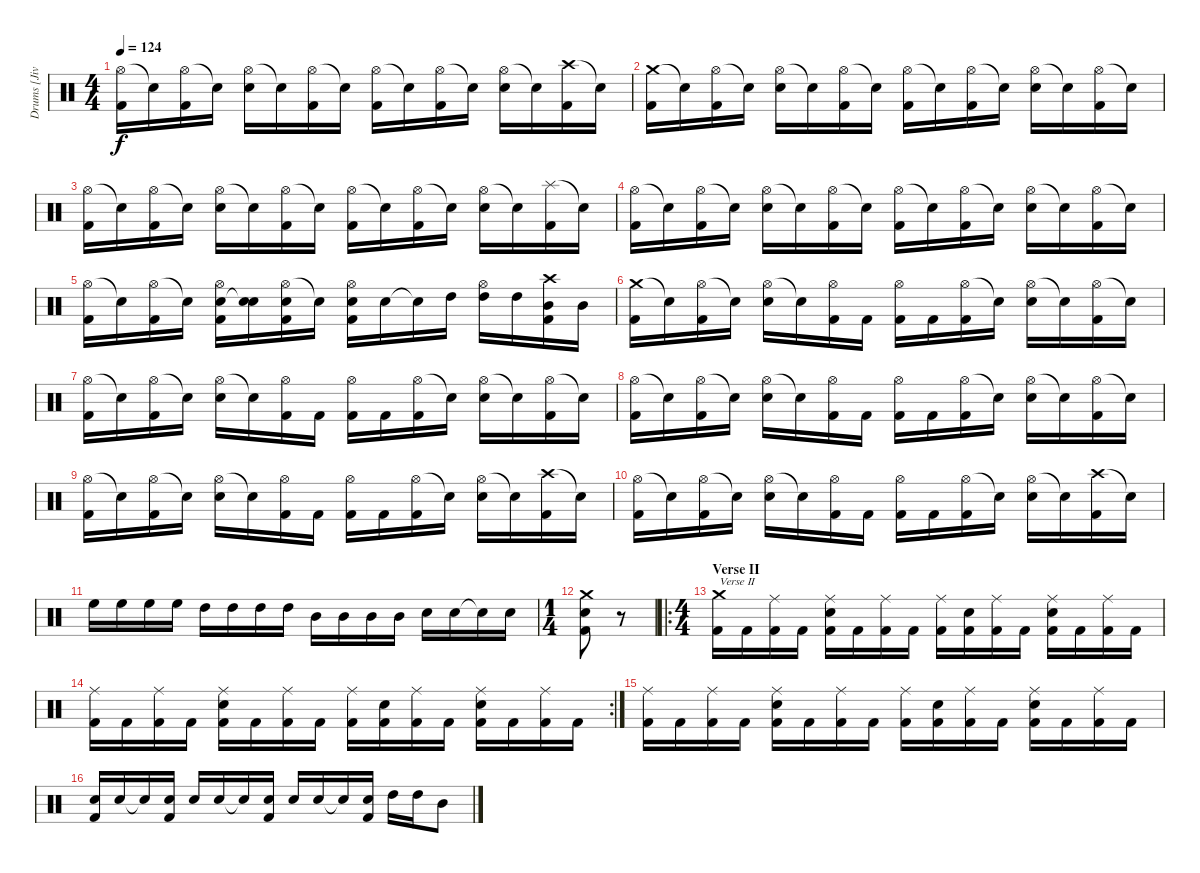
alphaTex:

\track ("Drums [Jivarp]" "Drums [Jiv") {instrument percussion}
\staff {score}
\articulation defaults
\ts (4 4)
\tempo 124
\clef neutral
\ks c
("Hi-Hat (open)" "Kick (hit) 2").16{dy f} "Snare (hit)"{t}.16 ("Hi-Hat (open)" "Kick (hit) 2").16 "Snare (hit)"{t}.16 ("Hi-Hat (open)" "Electric Snare (hit)").16 "Snare (hit)"{t}.16 ("Hi-Hat (open)" "Kick (hit) 2").16 "Snare (hit)"{t}.16 ("Hi-Hat (open)" "Kick (hit) 2").16 "Snare (hit)"{t}.16 ("Hi-Hat (open)" "Kick (hit) 2").16 "Snare (hit)"{t}.16 ("Hi-Hat (open)" "Electric Snare (hit)").16 "Snare (hit)"{t}.16 ("Crash high (hit)" "Kick (hit) 2").16 "Snare (hit)"{t}.16 |
("Crash medium (hit)" "Kick (hit) 2").16 "Snare (hit)"{t}.16 ("Hi-Hat (open)" "Kick (hit) 2").16 "Snare (hit)"{t}.16 ("Hi-Hat (open)" "Electric Snare (hit)").16 "Snare (hit)"{t}.16 ("Hi-Hat (open)" "Kick (hit) 2").16 "Snare (hit)"{t}.16 ("Hi-Hat (open)" "Kick (hit) 2").16 "Snare (hit)"{t}.16 ("Hi-Hat (open)" "Kick (hit) 2").16 "Snare (hit)"{t}.16 ("Hi-Hat (open)" "Electric Snare (hit)").16 "Snare (hit)"{t}.16 ("Hi-Hat (open)" "Kick (hit) 2").16 "Snare (hit)"{t}.16 |
("Hi-Hat (open)" "Kick (hit) 2").16 "Snare (hit)"{t}.16 ("Hi-Hat (open)" "Kick (hit) 2").16 "Snare (hit)"{t}.16 ("Hi-Hat (open)" "Electric Snare (hit)").16 "Snare (hit)"{t}.16 ("Hi-Hat (open)" "Kick (hit) 2").16 "Snare (hit)"{t}.16 ("Hi-Hat (open)" "Kick (hit) 2").16 "Snare (hit)"{t}.16 ("Hi-Hat (open)" "Kick (hit) 2").16 "Snare (hit)"{t}.16 ("Hi-Hat (open)" "Electric Snare (hit)").16 "Snare (hit)"{t}.16 ("Splash (hit)" "Kick (hit) 2").16 "Snare (hit)"{t}.16 |
("Hi-Hat (open)" "Kick (hit) 2").16 "Snare (hit)"{t}.16 ("Hi-Hat (open)" "Kick (hit) 2").16 "Snare (hit)"{t}.16 ("Hi-Hat (open)" "Electric Snare (hit)").16 "Snare (hit)"{t}.16 ("Hi-Hat (open)" "Kick (hit) 2").16 "Snare (hit)"{t}.16 ("Hi-Hat (open)" "Kick (hit) 2").16 "Snare (hit)"{t}.16 ("Hi-Hat (open)" "Kick (hit) 2").16 "Snare (hit)"{t}.16 ("Hi-Hat (open)" "Electric Snare (hit)").16 "Snare (hit)"{t}.16 ("Hi-Hat (open)" "Kick (hit) 2").16 "Snare (hit)"{t}.16 |
("Hi-Hat (open)" "Kick (hit) 2").16 "Snare (hit)"{t}.16 ("Hi-Hat (open)" "Kick (hit) 2").16 "Snare (hit)"{t}.16 ("Hi-Hat (open)" "Electric Snare (hit)" "Kick (hit) 2").16 ("Electric Snare (hit)" "Snare (hit)"{t}).16 ("Hi-Hat (open)" "Electric Snare (hit)" "Kick (hit) 2").16 "Snare (hit)"{t}.16 ("Hi-Hat (open)" "Electric Snare (hit)" "Kick (hit) 2").16 "Electric Snare (hit)".16 "Snare (hit)"{t}.16 "High Tom (hit)".16 ("Hi-Hat (open)" "High Tom (hit)").16 "High Tom (hit)".16 ("Crash high (hit)" "Mid Tom (hit)" "Kick (hit) 2").16 "Mid Tom (hit)".16 |
("Crash medium (hit)" "Kick (hit) 2").16 "Snare (hit)"{t}.16 ("Hi-Hat (open)" "Kick (hit) 2").16 "Snare (hit)"{t}.16 ("Hi-Hat (open)" "Electric Snare (hit)").16 "Snare (hit)"{t}.16 ("Hi-Hat (open)" "Kick (hit) 2").16 "Kick (hit) 2".16 ("Hi-Hat (open)" "Kick (hit) 2").16 "Kick (hit) 2".16 ("Hi-Hat (open)" "Kick (hit) 2").16 "Snare (hit)"{t}.16 ("Hi-Hat (open)" "Electric Snare (hit)").16 "Snare (hit)"{t}.16 ("Hi-Hat (open)" "Kick (hit) 2").16 "Snare (hit)"{t}.16 |
("Hi-Hat (open)" "Kick (hit) 2").16 "Snare (hit)"{t}.16 ("Hi-Hat (open)" "Kick (hit) 2").16 "Snare (hit)"{t}.16 ("Hi-Hat (open)" "Electric Snare (hit)").16 "Snare (hit)"{t}.16 ("Hi-Hat (open)" "Kick (hit) 2").16 "Kick (hit) 2".16 ("Hi-Hat (open)" "Kick (hit) 2").16 "Kick (hit) 2".16 ("Hi-Hat (open)" "Kick (hit) 2").16 "Snare (hit)"{t}.16 ("Hi-Hat (open)" "Electric Snare (hit)").16 "Snare (hit)"{t}.16 ("Hi-Hat (open)" "Kick (hit) 2").16 "Snare (hit)"{t}.16 |
("Hi-Hat (open)" "Kick (hit) 2").16 "Snare (hit)"{t}.16 ("Hi-Hat (open)" "Kick (hit) 2").16 "Snare (hit)"{t}.16 ("Hi-Hat (open)" "Electric Snare (hit)").16 "Snare (hit)"{t}.16 ("Hi-Hat (open)" "Kick (hit) 2").16 "Kick (hit) 2".16 ("Hi-Hat (open)" "Kick (hit) 2").16 "Kick (hit) 2".16 ("Hi-Hat (open)" "Kick (hit) 2").16 "Snare (hit)"{t}.16 ("Hi-Hat (open)" "Electric Snare (hit)").16 "Snare (hit)"{t}.16 ("Hi-Hat (open)" "Kick (hit) 2").16 "Snare (hit)"{t}.16 |
("Hi-Hat (open)" "Kick (hit) 2").16 "Snare (hit)"{t}.16 ("Hi-Hat (open)" "Kick (hit) 2").16 "Snare (hit)"{t}.16 ("Hi-Hat (open)" "Electric Snare (hit)").16 "Snare (hit)"{t}.16 ("Hi-Hat (open)" "Kick (hit) 2").16 "Kick (hit) 2".16 ("Hi-Hat (open)" "Kick (hit) 2").16 "Kick (hit) 2".16 ("Hi-Hat (open)" "Kick (hit) 2").16 "Snare (hit)"{t}.16 ("Hi-Hat (open)" "Electric Snare (hit)").16 "Snare (hit)"{t}.16 ("Crash high (hit)" "Kick (hit) 2").16 "Snare (hit)"{t}.16 |
("Hi-Hat (open)" "Kick (hit) 2").16 "Snare (hit)"{t}.16 ("Hi-Hat (open)" "Kick (hit) 2").16 "Snare (hit)"{t}.16 ("Hi-Hat (open)" "Electric Snare (hit)").16 "Snare (hit)"{t}.16 ("Hi-Hat (open)" "Kick (hit) 2").16 "Kick (hit) 2".16 ("Hi-Hat (open)" "Kick (hit) 2").16 "Kick (hit) 2".16 ("Hi-Hat (open)" "Kick (hit) 2").16 "Snare (hit)"{t}.16 ("Hi-Hat (open)" "Electric Snare (hit)").16 "Snare (hit)"{t}.16 ("Crash high (hit)" "Kick (hit) 2").16 "Snare (hit)"{t}.16 |
"High Floor Tom (hit)".16 "High Floor Tom (hit)".16 "High Floor Tom (hit)".16 "High Floor Tom (hit)".16 "High Tom (hit)".16 "High Tom (hit)".16 "High Tom (hit)".16 "High Tom (hit)".16 "Mid Tom (hit)".16 "Mid Tom (hit)".16 "Mid Tom (hit)".16 "Mid Tom (hit)".16 "Electric Snare (hit)".16 "Electric Snare (hit)".16 "Snare (hit)"{t}.16 "Electric Snare (hit)".16 |
\ts (1 4)
("Crash medium (hit)" "Electric Snare (hit)" "Kick (hit) 2").8 r.8 |
\ro
\ts (4 4)
\section ("" "Verse II")
("Crash medium (hit)" "Kick (hit) 2").16{txt "Verse II"} "Kick (hit) 2".16 ("Ride (middle)" "Kick (hit) 2").16 "Kick (hit) 2".16 ("Ride (middle)" "Electric Snare (hit)" "Kick (hit) 2").16 "Kick (hit) 2".16 ("Ride (middle)" "Kick (hit) 2").16 "Kick (hit) 2".16 ("Ride (middle)" "Kick (hit) 2").16 ("Electric Snare (hit)" "Kick (hit) 2").16 ("Ride (middle)" "Kick (hit) 2").16 "Kick (hit) 2".16 ("Ride (middle)" "Electric Snare (hit)" "Kick (hit) 2").16 "Kick (hit) 2".16 ("Ride (middle)" "Kick (hit) 2").16 "Kick (hit) 2".16 |
\rc 2
("Ride (middle)" "Kick (hit) 2").16 "Kick (hit) 2".16 ("Ride (middle)" "Kick (hit) 2").16 "Kick (hit) 2".16 ("Ride (middle)" "Electric Snare (hit)" "Kick (hit) 2").16 "Kick (hit) 2".16 ("Ride (middle)" "Kick (hit) 2").16 "Kick (hit) 2".16 ("Ride (middle)" "Kick (hit) 2").16 ("Electric Snare (hit)" "Kick (hit) 2").16 ("Ride (middle)" "Kick (hit) 2").16 "Kick (hit) 2".16 ("Ride (middle)" "Electric Snare (hit)" "Kick (hit) 2").16 "Kick (hit) 2".16 ("Ride (middle)" "Kick (hit) 2").16 "Kick (hit) 2".16 |
("Ride (middle)" "Kick (hit) 2").16 "Kick (hit) 2".16 ("Ride (middle)" "Kick (hit) 2").16 "Kick (hit) 2".16 ("Ride (middle)" "Electric Snare (hit)" "Kick (hit) 2").16 "Kick (hit) 2".16 ("Ride (middle)" "Kick (hit) 2").16 "Kick (hit) 2".16 ("Ride (middle)" "Kick (hit) 2").16 ("Electric Snare (hit)" "Kick (hit) 2").16 ("Ride (middle)" "Kick (hit) 2").16 "Kick (hit) 2".16 ("Ride (middle)" "Electric Snare (hit)" "Kick (hit) 2").16 "Kick (hit) 2".16 ("Ride (middle)" "Kick (hit) 2").16 "Kick (hit) 2".16 |
("Electric Snare (hit)" "Kick (hit) 2").16 "Electric Snare (hit)".16 "Snare (hit)"{t}.16 ("Electric Snare (hit)" "Kick (hit) 2").16 "Electric Snare (hit)".16 "Electric Snare (hit)".16 "Snare (hit)"{t}.16 ("Electric Snare (hit)" "Kick (hit) 2").16 "Electric Snare (hit)".16 "Electric Snare (hit)".16 "Snare (hit)"{t}.16 ("Electric Snare (hit)" "Kick (hit) 2").16 "High Tom (hit)".16 "High Tom (hit)".16 "Mid Tom (hit)".8
